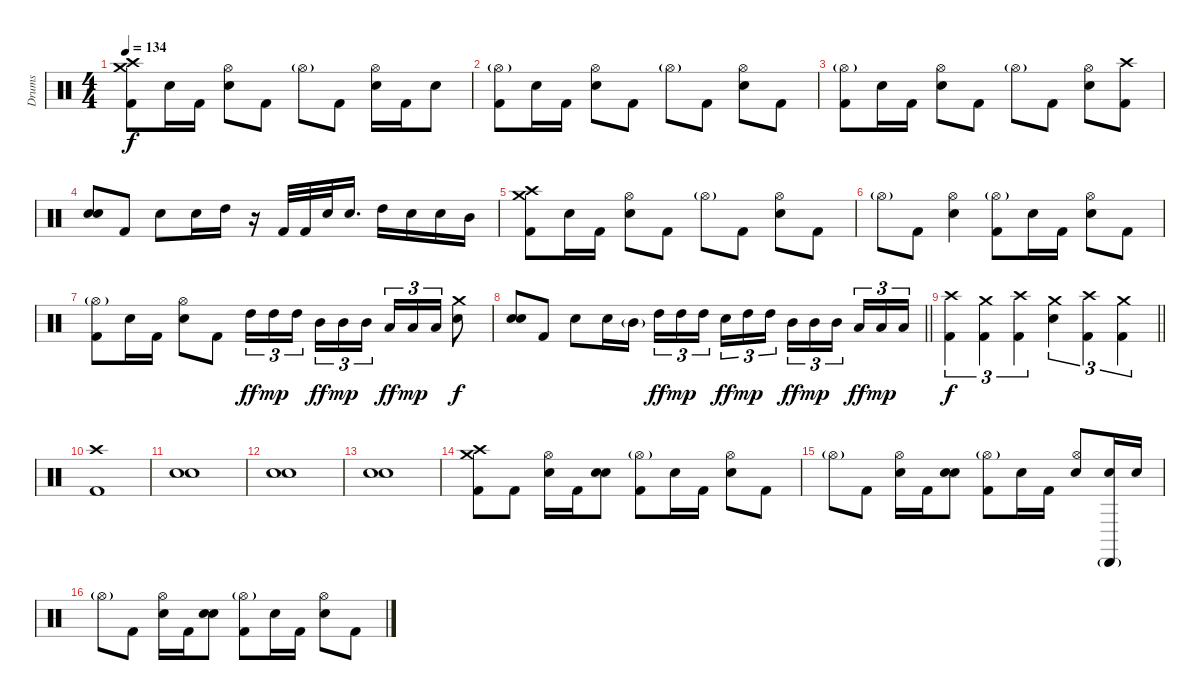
\track ("Drums" "Drums") {instrument percussion}
\staff {score}
\articulation defaults
\ts (4 4)
\tempo 134
\clef neutral
\ks c
("Crash high (hit)" "Crash medium (hit)" "Kick (hit) 2").8{dy f} "Snare (hit)".16 "Kick (hit) 2".16 ("Hi-Hat (open)" "Snare (hit) 2").8 "Kick (hit) 2".8 "Hi-Hat (open)"{g}.8 "Kick (hit) 2".8 ("Hi-Hat (open)" "Snare (hit) 2").16 "Kick (hit) 2".16 "Snare (hit)".8 |
("Hi-Hat (open)"{g} "Kick (hit) 2").8 "Snare (hit)".16 "Kick (hit) 2".16 ("Hi-Hat (open)" "Snare (hit) 2").8 "Kick (hit) 2".8 "Hi-Hat (open)"{g}.8 "Kick (hit) 2".8 ("Hi-Hat (open)" "Snare (hit) 2").8 "Kick (hit) 2".8 |
("Hi-Hat (open)"{g} "Kick (hit) 2").8 "Snare (hit)".16 "Kick (hit) 2".16 ("Hi-Hat (open)" "Snare (hit) 2").8 "Kick (hit) 2".8 "Hi-Hat (open)"{g}.8 "Kick (hit) 2".8 ("Hi-Hat (open)" "Snare (hit) 2").8 ("Crash high (hit)" "Kick (hit) 2").8 |
("Snare (hit)" "Snare (hit)").8 "Kick (hit) 2".8 "Snare (hit) 2".8 "Snare (hit) 2".16 "High Tom (hit)".16 r.16 "Kick (hit) 2".32 "Kick (hit) 2".32 "Snare (hit) 2".32 "Snare (hit) 2".16{d} "High Tom (hit)".16 "Snare (hit) 2".16 "Snare (hit) 2".16 "Mid Tom (hit)".16 |
("Crash high (hit)" "Crash medium (hit)" "Kick (hit) 2").8 "Snare (hit)".16 "Kick (hit) 2".16 ("Hi-Hat (open)" "Snare (hit) 2").8 "Kick (hit) 2".8 "Hi-Hat (open)"{g}.8 "Kick (hit) 2".8 ("Hi-Hat (open)" "Snare (hit) 2").8 "Kick (hit) 2".8 |
"Hi-Hat (open)"{g}.8 "Kick (hit) 2".8 ("Hi-Hat (open)" "Snare (hit) 2").4 ("Hi-Hat (open)"{g} "Kick (hit) 2").8 "Snare (hit)".16 "Kick (hit) 2".16 ("Hi-Hat (open)" "Snare (hit) 2").8 "Kick (hit) 2".8 |
("Hi-Hat (open)"{g} "Kick (hit) 2").8 "Snare (hit)".16 "Kick (hit) 2".16 ("Hi-Hat (open)" "Snare (hit) 2").8 "Kick (hit) 2".8 "High Tom (hit)".16{tu (3 2) dy ff} "High Tom (hit)".16{tu (3 2) dy mp} "High Tom (hit)".16{tu (3 2)} "Mid Tom (hit)".16{tu (3 2) dy ff} "Mid Tom (hit)".16{tu (3 2) dy mp} "Mid Tom (hit)".16{tu (3 2)} "Low Tom (hit)".16{tu (3 2) dy ff} "Low Tom (hit)".16{tu (3 2) dy mp} "Low Tom (hit)".16{tu (3 2)} ("Crash medium (hit)" "Snare (hit) 2").8{dy f} |
\barLineRight lightlight
("Snare (hit)" "Snare (hit)").8 "Kick (hit) 2".8 "Snare (hit) 2".8 "Snare (hit) 2".16 "Mid Tom (hit)"{g}.16 "High Tom (hit)".16{tu (3 2) dy ff} "High Tom (hit)".16{tu (3 2) dy mp} "High Tom (hit)".16{tu (3 2)} "Snare (hit) 2".16{tu (3 2) dy ff} "High Tom (hit)".16{tu (3 2) dy mp} "High Tom (hit)".16{tu (3 2)} "Mid Tom (hit)".16{tu (3 2) dy ff} "Mid Tom (hit)".16{tu (3 2) dy mp} "Mid Tom (hit)".16{tu (3 2)} "Low Tom (hit)".16{tu (3 2) dy ff} "Low Tom (hit)".16{tu (3 2) dy mp} "Low Tom (hit)".16{tu (3 2)} |
\barLineRight lightlight
("Crash high (hit)" "Kick (hit) 2").4{tu (3 2) dy f} ("Crash medium (hit)" "Kick (hit) 2").4{tu (3 2)} ("Crash high (hit)" "Kick (hit) 2").4{tu (3 2)} ("Crash medium (hit)" "Snare (hit) 2").4{tu (3 2)} ("Crash high (hit)" "Kick (hit) 2").4{tu (3 2)} ("Crash medium (hit)" "Kick (hit) 2").4{tu (3 2)} |
("Crash high (hit)" "Kick (hit) 2").1 |
("Snare (hit)" "Snare (hit)").1 |
("Snare (hit)" "Snare (hit)").1 |
("Snare (hit)" "Snare (hit)").1 |
("Crash high (hit)" "Crash medium (hit)" "Kick (hit) 2").8 "Kick (hit) 2".8 ("Hi-Hat (open)" "Snare (hit) 2").16 "Kick (hit) 2".16 ("Snare (hit)" "Snare (hit)").8 ("Hi-Hat (open)"{g} "Kick (hit) 2").8 "Snare (hit)".16 "Kick (hit) 2".16 ("Hi-Hat (open)" "Snare (hit) 2").8 "Kick (hit) 2".8 |
"Hi-Hat (open)"{g}.8 "Kick (hit) 2".8 ("Hi-Hat (open)" "Snare (hit) 2").16 "Kick (hit) 2".16 ("Snare (hit)" "Snare (hit)").8 ("Hi-Hat (open)"{g} "Kick (hit) 2").8 "Snare (hit)".16 "Kick (hit) 2".16 ("Hi-Hat (open)" "Snare (hit) 2").8 ("Cabasa (hit)"{g} "Snare (hit)").16 "Snare (hit) 2".16 |
"Hi-Hat (open)"{g}.8 "Kick (hit) 2".8 ("Hi-Hat (open)" "Snare (hit) 2").16 "Kick (hit) 2".16 ("Snare (hit)" "Snare (hit)").8 ("Hi-Hat (open)"{g} "Kick (hit) 2").8 "Snare (hit)".16 "Kick (hit) 2".16 ("Hi-Hat (open)" "Snare (hit) 2").8 "Kick (hit) 2".8
